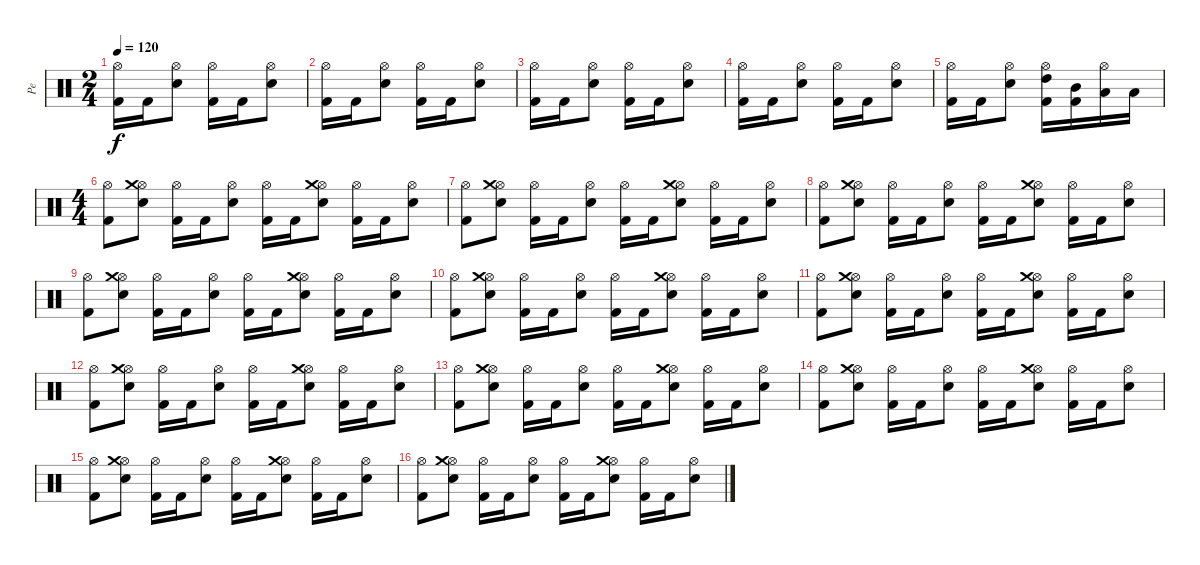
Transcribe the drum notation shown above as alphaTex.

\track ("Pe" "Pe") {instrument percussion}
\staff {score}
\articulation defaults
\ts (2 4)
\tempo 120
\clef neutral
\ks c
("Hi-Hat (open)" "Kick (hit) 2").16{dy f} "Kick (hit) 2".16 ("Hi-Hat (open)" "Electric Snare (hit)").8 ("Hi-Hat (open)" "Kick (hit) 2").16 "Kick (hit) 2".16 ("Hi-Hat (open)" "Electric Snare (hit)").8 |
("Hi-Hat (open)" "Kick (hit) 2").16 "Kick (hit) 2".16 ("Hi-Hat (open)" "Electric Snare (hit)").8 ("Hi-Hat (open)" "Kick (hit) 2").16 "Kick (hit) 2".16 ("Hi-Hat (open)" "Electric Snare (hit)").8 |
("Hi-Hat (open)" "Kick (hit) 2").16 "Kick (hit) 2".16 ("Hi-Hat (open)" "Electric Snare (hit)").8 ("Hi-Hat (open)" "Kick (hit) 2").16 "Kick (hit) 2".16 ("Hi-Hat (open)" "Electric Snare (hit)").8 |
("Hi-Hat (open)" "Kick (hit) 2").16 "Kick (hit) 2".16 ("Hi-Hat (open)" "Electric Snare (hit)").8 ("Hi-Hat (open)" "Kick (hit) 2").16 "Kick (hit) 2".16 ("Hi-Hat (open)" "Electric Snare (hit)").8 |
("Hi-Hat (open)" "Kick (hit) 2").16 "Kick (hit) 2".16 ("Hi-Hat (open)" "Electric Snare (hit)").8 ("Hi-Hat (open)" "High Tom (hit)" "Kick (hit) 2").16 ("Mid Tom (hit)" "Kick (hit) 2").16 ("Hi-Hat (open)" "Low Tom (hit)").16 "Low Tom (hit)".16 |
\ts (4 4)
("Hi-Hat (open)" "Kick (hit) 2").8 ("Hi-Hat (open)" "Crash medium (hit)" "Electric Snare (hit)").8 ("Hi-Hat (open)" "Kick (hit) 2").16 "Kick (hit) 2".16 ("Hi-Hat (open)" "Electric Snare (hit)").8 ("Hi-Hat (open)" "Kick (hit) 2").16 "Kick (hit) 2".16 ("Hi-Hat (open)" "Crash medium (hit)" "Electric Snare (hit)").8 ("Hi-Hat (open)" "Kick (hit) 2").16 "Kick (hit) 2".16 ("Hi-Hat (open)" "Electric Snare (hit)").8 |
("Hi-Hat (open)" "Kick (hit) 2").8 ("Hi-Hat (open)" "Crash medium (hit)" "Electric Snare (hit)").8 ("Hi-Hat (open)" "Kick (hit) 2").16 "Kick (hit) 2".16 ("Hi-Hat (open)" "Electric Snare (hit)").8 ("Hi-Hat (open)" "Kick (hit) 2").16 "Kick (hit) 2".16 ("Hi-Hat (open)" "Crash medium (hit)" "Electric Snare (hit)").8 ("Hi-Hat (open)" "Kick (hit) 2").16 "Kick (hit) 2".16 ("Hi-Hat (open)" "Electric Snare (hit)").8 |
("Hi-Hat (open)" "Kick (hit) 2").8 ("Hi-Hat (open)" "Crash medium (hit)" "Electric Snare (hit)").8 ("Hi-Hat (open)" "Kick (hit) 2").16 "Kick (hit) 2".16 ("Hi-Hat (open)" "Electric Snare (hit)").8 ("Hi-Hat (open)" "Kick (hit) 2").16 "Kick (hit) 2".16 ("Hi-Hat (open)" "Crash medium (hit)" "Electric Snare (hit)").8 ("Hi-Hat (open)" "Kick (hit) 2").16 "Kick (hit) 2".16 ("Hi-Hat (open)" "Electric Snare (hit)").8 |
("Hi-Hat (open)" "Kick (hit) 2").8 ("Hi-Hat (open)" "Crash medium (hit)" "Electric Snare (hit)").8 ("Hi-Hat (open)" "Kick (hit) 2").16 "Kick (hit) 2".16 ("Hi-Hat (open)" "Electric Snare (hit)").8 ("Hi-Hat (open)" "Kick (hit) 2").16 "Kick (hit) 2".16 ("Hi-Hat (open)" "Crash medium (hit)" "Electric Snare (hit)").8 ("Hi-Hat (open)" "Kick (hit) 2").16 "Kick (hit) 2".16 ("Hi-Hat (open)" "Electric Snare (hit)").8 |
("Hi-Hat (open)" "Kick (hit) 2").8 ("Hi-Hat (open)" "Crash medium (hit)" "Electric Snare (hit)").8 ("Hi-Hat (open)" "Kick (hit) 2").16 "Kick (hit) 2".16 ("Hi-Hat (open)" "Electric Snare (hit)").8 ("Hi-Hat (open)" "Kick (hit) 2").16 "Kick (hit) 2".16 ("Hi-Hat (open)" "Crash medium (hit)" "Electric Snare (hit)").8 ("Hi-Hat (open)" "Kick (hit) 2").16 "Kick (hit) 2".16 ("Hi-Hat (open)" "Electric Snare (hit)").8 |
("Hi-Hat (open)" "Kick (hit) 2").8 ("Hi-Hat (open)" "Crash medium (hit)" "Electric Snare (hit)").8 ("Hi-Hat (open)" "Kick (hit) 2").16 "Kick (hit) 2".16 ("Hi-Hat (open)" "Electric Snare (hit)").8 ("Hi-Hat (open)" "Kick (hit) 2").16 "Kick (hit) 2".16 ("Hi-Hat (open)" "Crash medium (hit)" "Electric Snare (hit)").8 ("Hi-Hat (open)" "Kick (hit) 2").16 "Kick (hit) 2".16 ("Hi-Hat (open)" "Electric Snare (hit)").8 |
("Hi-Hat (open)" "Kick (hit) 2").8 ("Hi-Hat (open)" "Crash medium (hit)" "Electric Snare (hit)").8 ("Hi-Hat (open)" "Kick (hit) 2").16 "Kick (hit) 2".16 ("Hi-Hat (open)" "Electric Snare (hit)").8 ("Hi-Hat (open)" "Kick (hit) 2").16 "Kick (hit) 2".16 ("Hi-Hat (open)" "Crash medium (hit)" "Electric Snare (hit)").8 ("Hi-Hat (open)" "Kick (hit) 2").16 "Kick (hit) 2".16 ("Hi-Hat (open)" "Electric Snare (hit)").8 |
("Hi-Hat (open)" "Kick (hit) 2").8 ("Hi-Hat (open)" "Crash medium (hit)" "Electric Snare (hit)").8 ("Hi-Hat (open)" "Kick (hit) 2").16 "Kick (hit) 2".16 ("Hi-Hat (open)" "Electric Snare (hit)").8 ("Hi-Hat (open)" "Kick (hit) 2").16 "Kick (hit) 2".16 ("Hi-Hat (open)" "Crash medium (hit)" "Electric Snare (hit)").8 ("Hi-Hat (open)" "Kick (hit) 2").16 "Kick (hit) 2".16 ("Hi-Hat (open)" "Electric Snare (hit)").8 |
("Hi-Hat (open)" "Kick (hit) 2").8 ("Hi-Hat (open)" "Crash medium (hit)" "Electric Snare (hit)").8 ("Hi-Hat (open)" "Kick (hit) 2").16 "Kick (hit) 2".16 ("Hi-Hat (open)" "Electric Snare (hit)").8 ("Hi-Hat (open)" "Kick (hit) 2").16 "Kick (hit) 2".16 ("Hi-Hat (open)" "Crash medium (hit)" "Electric Snare (hit)").8 ("Hi-Hat (open)" "Kick (hit) 2").16 "Kick (hit) 2".16 ("Hi-Hat (open)" "Electric Snare (hit)").8 |
("Hi-Hat (open)" "Kick (hit) 2").8 ("Hi-Hat (open)" "Crash medium (hit)" "Electric Snare (hit)").8 ("Hi-Hat (open)" "Kick (hit) 2").16 "Kick (hit) 2".16 ("Hi-Hat (open)" "Electric Snare (hit)").8 ("Hi-Hat (open)" "Kick (hit) 2").16 "Kick (hit) 2".16 ("Hi-Hat (open)" "Crash medium (hit)" "Electric Snare (hit)").8 ("Hi-Hat (open)" "Kick (hit) 2").16 "Kick (hit) 2".16 ("Hi-Hat (open)" "Electric Snare (hit)").8 |
("Hi-Hat (open)" "Kick (hit) 2").8 ("Hi-Hat (open)" "Crash medium (hit)" "Electric Snare (hit)").8 ("Hi-Hat (open)" "Kick (hit) 2").16 "Kick (hit) 2".16 ("Hi-Hat (open)" "Electric Snare (hit)").8 ("Hi-Hat (open)" "Kick (hit) 2").16 "Kick (hit) 2".16 ("Hi-Hat (open)" "Crash medium (hit)" "Electric Snare (hit)").8 ("Hi-Hat (open)" "Kick (hit) 2").16 "Kick (hit) 2".16 ("Hi-Hat (open)" "Electric Snare (hit)").8
